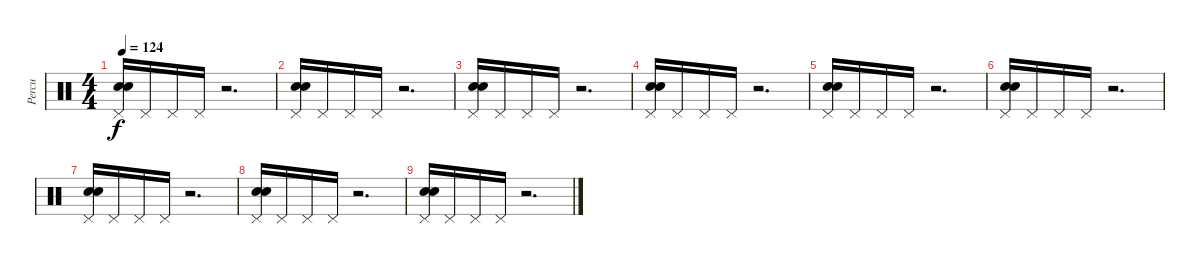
\track ("Percu" "Percu") {instrument percussion}
\staff {score}
\articulation defaults
\ts (4 4)
\tempo 124
\clef neutral
\ks c
("Pedal Hi-Hat (hit)" "Snare (hit) 2" "Snare (hit) 2").16{dy f} "Pedal Hi-Hat (hit)".16 "Pedal Hi-Hat (hit)".16 "Pedal Hi-Hat (hit)".16 r.2{d} |
("Pedal Hi-Hat (hit)" "Snare (hit) 2" "Snare (hit) 2").16 "Pedal Hi-Hat (hit)".16 "Pedal Hi-Hat (hit)".16 "Pedal Hi-Hat (hit)".16 r.2{d} |
("Pedal Hi-Hat (hit)" "Snare (hit) 2" "Snare (hit) 2").16 "Pedal Hi-Hat (hit)".16 "Pedal Hi-Hat (hit)".16 "Pedal Hi-Hat (hit)".16 r.2{d} |
("Pedal Hi-Hat (hit)" "Snare (hit) 2" "Snare (hit) 2").16 "Pedal Hi-Hat (hit)".16 "Pedal Hi-Hat (hit)".16 "Pedal Hi-Hat (hit)".16 r.2{d} |
("Pedal Hi-Hat (hit)" "Snare (hit) 2" "Snare (hit) 2").16 "Pedal Hi-Hat (hit)".16 "Pedal Hi-Hat (hit)".16 "Pedal Hi-Hat (hit)".16 r.2{d} |
("Pedal Hi-Hat (hit)" "Snare (hit) 2" "Snare (hit) 2").16 "Pedal Hi-Hat (hit)".16 "Pedal Hi-Hat (hit)".16 "Pedal Hi-Hat (hit)".16 r.2{d} |
("Pedal Hi-Hat (hit)" "Snare (hit) 2" "Snare (hit) 2").16 "Pedal Hi-Hat (hit)".16 "Pedal Hi-Hat (hit)".16 "Pedal Hi-Hat (hit)".16 r.2{d} |
("Pedal Hi-Hat (hit)" "Snare (hit) 2" "Snare (hit) 2").16 "Pedal Hi-Hat (hit)".16 "Pedal Hi-Hat (hit)".16 "Pedal Hi-Hat (hit)".16 r.2{d} |
("Pedal Hi-Hat (hit)" "Snare (hit) 2" "Snare (hit) 2").16 "Pedal Hi-Hat (hit)".16 "Pedal Hi-Hat (hit)".16 "Pedal Hi-Hat (hit)".16 r.2{d}
